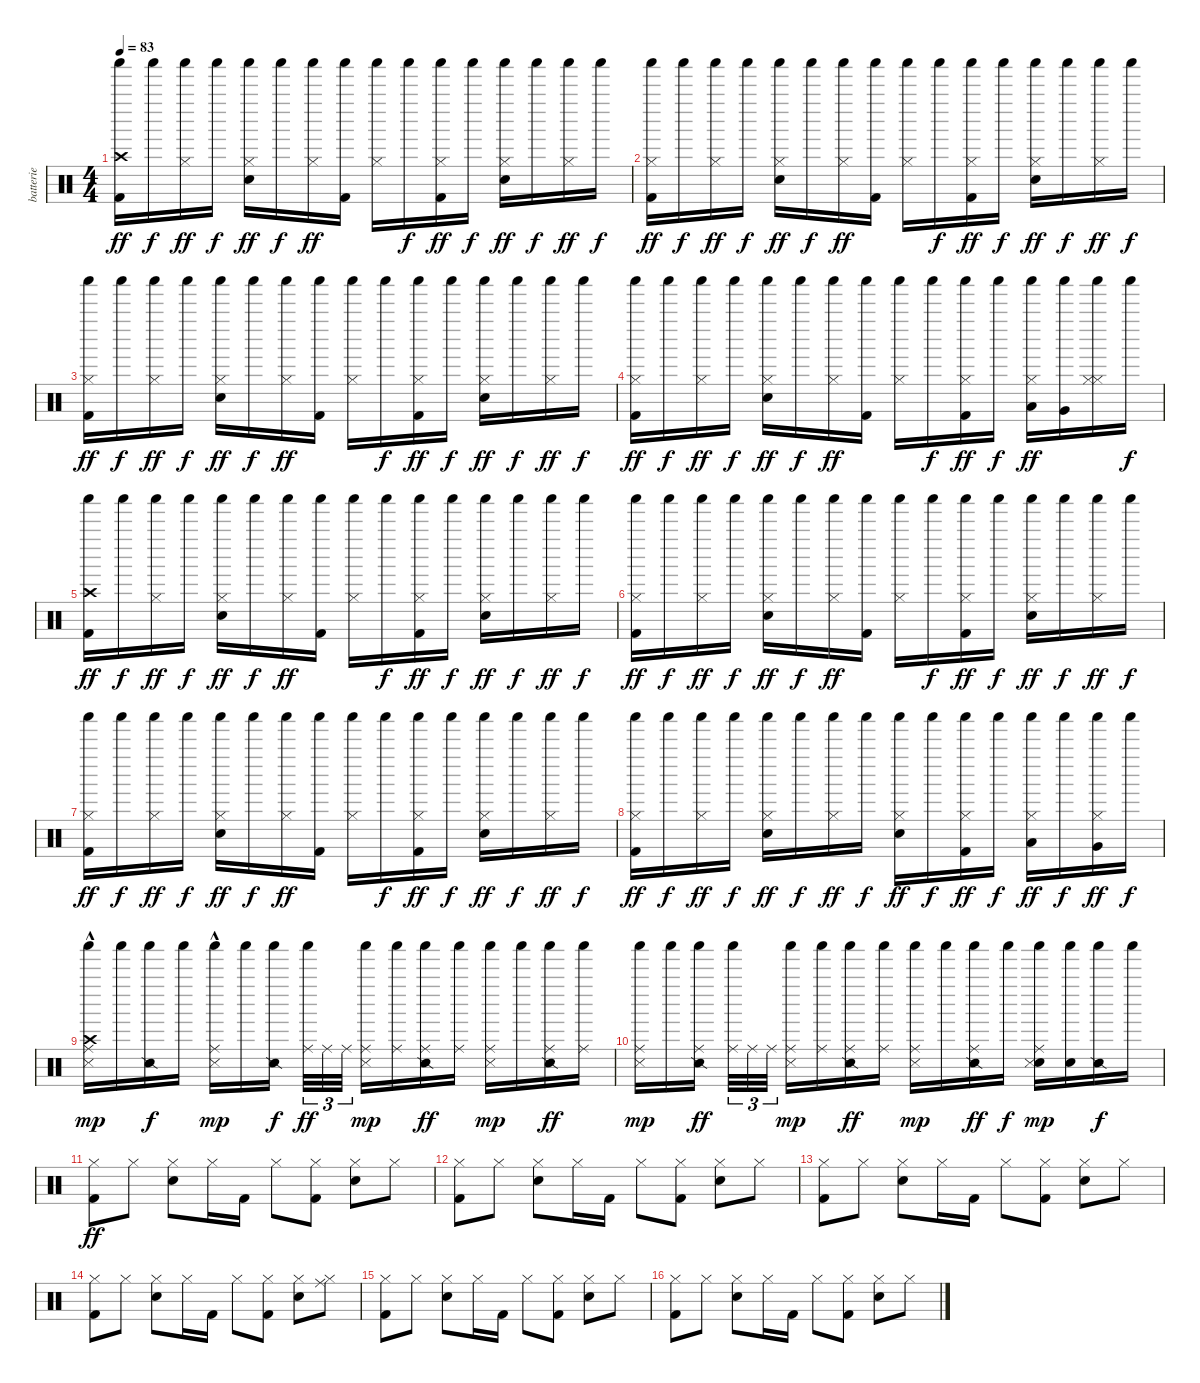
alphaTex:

\track ("batterie" "batterie") {instrument percussion}
\staff {score}
\articulation defaults
\ts (4 4)
\tempo 83
\clef neutral
\ks c
("Kick (hit) 2" "Crash high (hit)" "Shaker (hit)").16{dy ff} "Shaker (hit)".16{dy f} ("Hi-Hat (closed)" "Shaker (hit)").16{dy ff} "Shaker (hit)".16{dy f} ("Snare (hit) 2" "Hi-Hat (closed)" "Shaker (hit)").16{dy ff} "Shaker (hit)".16{dy f} ("Hi-Hat (closed)" "Shaker (hit)").16{dy ff} ("Kick (hit) 2" "Shaker (hit)").16 ("Hi-Hat (closed)" "Shaker (hit)").16 "Shaker (hit)".16{dy f} ("Kick (hit) 2" "Hi-Hat (closed)" "Shaker (hit)").16{dy ff} "Shaker (hit)".16{dy f} ("Snare (hit) 2" "Hi-Hat (closed)" "Shaker (hit)").16{dy ff} "Shaker (hit)".16{dy f} ("Hi-Hat (closed)" "Shaker (hit)").16{dy ff} "Shaker (hit)".16{dy f} |
("Kick (hit) 2" "Hi-Hat (closed)" "Shaker (hit)").16{dy ff} "Shaker (hit)".16{dy f} ("Hi-Hat (closed)" "Shaker (hit)").16{dy ff} "Shaker (hit)".16{dy f} ("Snare (hit) 2" "Hi-Hat (closed)" "Shaker (hit)").16{dy ff} "Shaker (hit)".16{dy f} ("Hi-Hat (closed)" "Shaker (hit)").16{dy ff} ("Kick (hit) 2" "Shaker (hit)").16 ("Hi-Hat (closed)" "Shaker (hit)").16 "Shaker (hit)".16{dy f} ("Kick (hit) 2" "Hi-Hat (closed)" "Shaker (hit)").16{dy ff} "Shaker (hit)".16{dy f} ("Snare (hit) 2" "Hi-Hat (closed)" "Shaker (hit)").16{dy ff} "Shaker (hit)".16{dy f} ("Hi-Hat (closed)" "Shaker (hit)").16{dy ff} "Shaker (hit)".16{dy f} |
("Kick (hit) 2" "Hi-Hat (closed)" "Shaker (hit)").16{dy ff} "Shaker (hit)".16{dy f} ("Hi-Hat (closed)" "Shaker (hit)").16{dy ff} "Shaker (hit)".16{dy f} ("Snare (hit) 2" "Hi-Hat (closed)" "Shaker (hit)").16{dy ff} "Shaker (hit)".16{dy f} ("Hi-Hat (closed)" "Shaker (hit)").16{dy ff} ("Kick (hit) 2" "Shaker (hit)").16 ("Hi-Hat (closed)" "Shaker (hit)").16 "Shaker (hit)".16{dy f} ("Kick (hit) 2" "Hi-Hat (closed)" "Shaker (hit)").16{dy ff} "Shaker (hit)".16{dy f} ("Snare (hit) 2" "Hi-Hat (closed)" "Shaker (hit)").16{dy ff} "Shaker (hit)".16{dy f} ("Hi-Hat (closed)" "Shaker (hit)").16{dy ff} "Shaker (hit)".16{dy f} |
("Kick (hit) 2" "Hi-Hat (closed)" "Shaker (hit)").16{dy ff} "Shaker (hit)".16{dy f} ("Hi-Hat (closed)" "Shaker (hit)").16{dy ff} "Shaker (hit)".16{dy f} ("Snare (hit) 2" "Hi-Hat (closed)" "Shaker (hit)").16{dy ff} "Shaker (hit)".16{dy f} ("Hi-Hat (closed)" "Shaker (hit)").16{dy ff} ("Kick (hit) 2" "Shaker (hit)").16 ("Hi-Hat (closed)" "Shaker (hit)").16 "Shaker (hit)".16{dy f} ("Kick (hit) 2" "Hi-Hat (closed)" "Shaker (hit)").16{dy ff} "Shaker (hit)".16{dy f} ("Hi-Hat (closed)" "Low Tom (hit)" "Shaker (hit)").16{dy ff} ("Very Low Tom (hit)" "Shaker (hit)").16 ("Hi-Hat (closed)" "Hi-Hat (closed)" "Shaker (hit)").16 "Shaker (hit)".16{dy f} |
("Kick (hit) 2" "Crash high (hit)" "Shaker (hit)").16{dy ff} "Shaker (hit)".16{dy f} ("Hi-Hat (closed)" "Shaker (hit)").16{dy ff} "Shaker (hit)".16{dy f} ("Snare (hit) 2" "Hi-Hat (closed)" "Shaker (hit)").16{dy ff} "Shaker (hit)".16{dy f} ("Hi-Hat (closed)" "Shaker (hit)").16{dy ff} ("Kick (hit) 2" "Shaker (hit)").16 ("Hi-Hat (closed)" "Shaker (hit)").16 "Shaker (hit)".16{dy f} ("Kick (hit) 2" "Hi-Hat (closed)" "Shaker (hit)").16{dy ff} "Shaker (hit)".16{dy f} ("Snare (hit) 2" "Hi-Hat (closed)" "Shaker (hit)").16{dy ff} "Shaker (hit)".16{dy f} ("Hi-Hat (closed)" "Shaker (hit)").16{dy ff} "Shaker (hit)".16{dy f} |
("Kick (hit) 2" "Hi-Hat (closed)" "Shaker (hit)").16{dy ff} "Shaker (hit)".16{dy f} ("Hi-Hat (closed)" "Shaker (hit)").16{dy ff} "Shaker (hit)".16{dy f} ("Snare (hit) 2" "Hi-Hat (closed)" "Shaker (hit)").16{dy ff} "Shaker (hit)".16{dy f} ("Hi-Hat (closed)" "Shaker (hit)").16{dy ff} ("Kick (hit) 2" "Shaker (hit)").16 ("Hi-Hat (closed)" "Shaker (hit)").16 "Shaker (hit)".16{dy f} ("Kick (hit) 2" "Hi-Hat (closed)" "Shaker (hit)").16{dy ff} "Shaker (hit)".16{dy f} ("Snare (hit) 2" "Hi-Hat (closed)" "Shaker (hit)").16{dy ff} "Shaker (hit)".16{dy f} ("Hi-Hat (closed)" "Shaker (hit)").16{dy ff} "Shaker (hit)".16{dy f} |
("Kick (hit) 2" "Hi-Hat (closed)" "Shaker (hit)").16{dy ff} "Shaker (hit)".16{dy f} ("Hi-Hat (closed)" "Shaker (hit)").16{dy ff} "Shaker (hit)".16{dy f} ("Snare (hit) 2" "Hi-Hat (closed)" "Shaker (hit)").16{dy ff} "Shaker (hit)".16{dy f} ("Hi-Hat (closed)" "Shaker (hit)").16{dy ff} ("Kick (hit) 2" "Shaker (hit)").16 ("Hi-Hat (closed)" "Shaker (hit)").16 "Shaker (hit)".16{dy f} ("Kick (hit) 2" "Hi-Hat (closed)" "Shaker (hit)").16{dy ff} "Shaker (hit)".16{dy f} ("Snare (hit) 2" "Hi-Hat (closed)" "Shaker (hit)").16{dy ff} "Shaker (hit)".16{dy f} ("Hi-Hat (closed)" "Shaker (hit)").16{dy ff} "Shaker (hit)".16{dy f} |
("Kick (hit) 2" "Hi-Hat (closed)" "Shaker (hit)").16{dy ff} "Shaker (hit)".16{dy f} ("Hi-Hat (closed)" "Shaker (hit)").16{dy ff} "Shaker (hit)".16{dy f} ("Snare (hit) 2" "Hi-Hat (closed)" "Shaker (hit)").16{dy ff} "Shaker (hit)".16{dy f} ("Hi-Hat (closed)" "Shaker (hit)").16{dy ff} "Shaker (hit)".16{dy f} ("Snare (hit) 2" "Hi-Hat (closed)" "Shaker (hit)").16{dy ff} "Shaker (hit)".16{dy f} ("Kick (hit) 2" "Hi-Hat (closed)" "Shaker (hit)").16{dy ff} "Shaker (hit)".16{dy f} ("Hi-Hat (closed)" "Low Tom (hit)" "Shaker (hit)").16{dy ff} "Shaker (hit)".16{dy f} ("Hi-Hat (closed)" "Very Low Tom (hit)" "Shaker (hit)").16{dy ff} "Shaker (hit)".16{dy f} |
("Crash high (hit)"{hac} "Ride (middle)"{hac} "Snare (side stick) 3" "Shaker (hit)").16{dy mp} "Shaker (hit)".16 ("Snare (side stick) 2" "Shaker (hit)").16{dy f} "Shaker (hit)".16 ("Ride (middle)"{hac} "Snare (side stick) 3" "Shaker (hit)").16{dy mp} "Shaker (hit)".16 ("Snare (side stick) 2" "Shaker (hit)").16{dy f} ("Ride (middle)" "Shaker (hit)").32{tu (3 2) dy ff} "Ride (middle)".32{tu (3 2)} "Ride (middle)".32{tu (3 2)} ("Ride (middle)" "Snare (side stick) 3" "Shaker (hit)").16{dy mp} ("Ride (middle)" "Shaker (hit)").16 ("Ride (middle)" "Snare (side stick) 2" "Shaker (hit)").16{dy ff} ("Ride (middle)" "Shaker (hit)").16 ("Ride (middle)" "Snare (side stick) 3" "Shaker (hit)").16{dy mp} "Shaker (hit)".16 ("Ride (middle)" "Snare (side stick) 2" "Shaker (hit)").16{dy ff} ("Ride (middle)" "Shaker (hit)").16 |
("Ride (middle)" "Snare (side stick) 3" "Shaker (hit)").16{dy mp} "Shaker (hit)".16 ("Ride (middle)" "Snare (side stick) 2" "Shaker (hit)").16{dy ff} ("Ride (middle)" "Shaker (hit)").32{tu (3 2)} "Ride (middle)".32{tu (3 2)} "Ride (middle)".32{tu (3 2)} ("Ride (middle)" "Snare (side stick) 3" "Shaker (hit)").16{dy mp} ("Ride (middle)" "Shaker (hit)").16 ("Ride (middle)" "Snare (side stick) 2" "Shaker (hit)").16{dy ff} ("Ride (middle)" "Shaker (hit)").16 ("Ride (middle)" "Snare (side stick) 3" "Shaker (hit)").16{dy mp} "Shaker (hit)".16 ("Ride (middle)" "Snare (side stick) 2" "Shaker (hit)").16{dy ff} "Shaker (hit)".16{dy f} ("Snare (hit) 2" "Ride (middle)" "Snare (side stick) 3" "Shaker (hit)").16{dy mp} ("Snare (hit) 2" "Shaker (hit)").16 ("Snare (side stick) 2" "Shaker (hit)").16{dy f} "Shaker (hit)".16 |
("Kick (hit) 2" "Hi-Hat (closed)").8{dy ff} "Hi-Hat (closed)".8 ("Snare (hit) 2" "Hi-Hat (closed)").8 "Hi-Hat (closed)".16 "Kick (hit) 2".16 "Hi-Hat (closed)".8 ("Kick (hit) 2" "Hi-Hat (closed)").8 ("Snare (hit) 2" "Hi-Hat (closed)").8 "Hi-Hat (closed)".8 |
("Kick (hit) 2" "Hi-Hat (closed)").8 "Hi-Hat (closed)".8 ("Snare (hit) 2" "Hi-Hat (closed)").8 "Hi-Hat (closed)".16 "Kick (hit) 2".16 "Hi-Hat (closed)".8 ("Kick (hit) 2" "Hi-Hat (closed)").8 ("Snare (hit) 2" "Hi-Hat (closed)").8 "Hi-Hat (closed)".8 |
("Kick (hit) 2" "Hi-Hat (closed)").8 "Hi-Hat (closed)".8 ("Snare (hit) 2" "Hi-Hat (closed)").8 "Hi-Hat (closed)".16 "Kick (hit) 2".16 "Hi-Hat (closed)".8 ("Kick (hit) 2" "Hi-Hat (closed)").8 ("Snare (hit) 2" "Hi-Hat (closed)").8 "Hi-Hat (closed)".8 |
("Kick (hit) 2" "Hi-Hat (closed)").8 "Hi-Hat (closed)".8 ("Snare (hit) 2" "Hi-Hat (closed)").8 "Hi-Hat (closed)".16 "Kick (hit) 2".16 "Hi-Hat (closed)".8 ("Kick (hit) 2" "Hi-Hat (closed)").8 ("Snare (hit) 2" "Hi-Hat (closed)").8 ("Hi-Hat (closed)" "Ride (middle)").8 |
("Kick (hit) 2" "Hi-Hat (closed)").8 "Hi-Hat (closed)".8 ("Snare (hit) 2" "Hi-Hat (closed)").8 "Hi-Hat (closed)".16 "Kick (hit) 2".16 "Hi-Hat (closed)".8 ("Kick (hit) 2" "Hi-Hat (closed)").8 ("Snare (hit) 2" "Hi-Hat (closed)").8 "Hi-Hat (closed)".8 |
("Kick (hit) 2" "Hi-Hat (closed)").8 "Hi-Hat (closed)".8 ("Snare (hit) 2" "Hi-Hat (closed)").8 "Hi-Hat (closed)".16 "Kick (hit) 2".16 "Hi-Hat (closed)".8 ("Kick (hit) 2" "Hi-Hat (closed)").8 ("Snare (hit) 2" "Hi-Hat (closed)").8 "Hi-Hat (closed)".8
